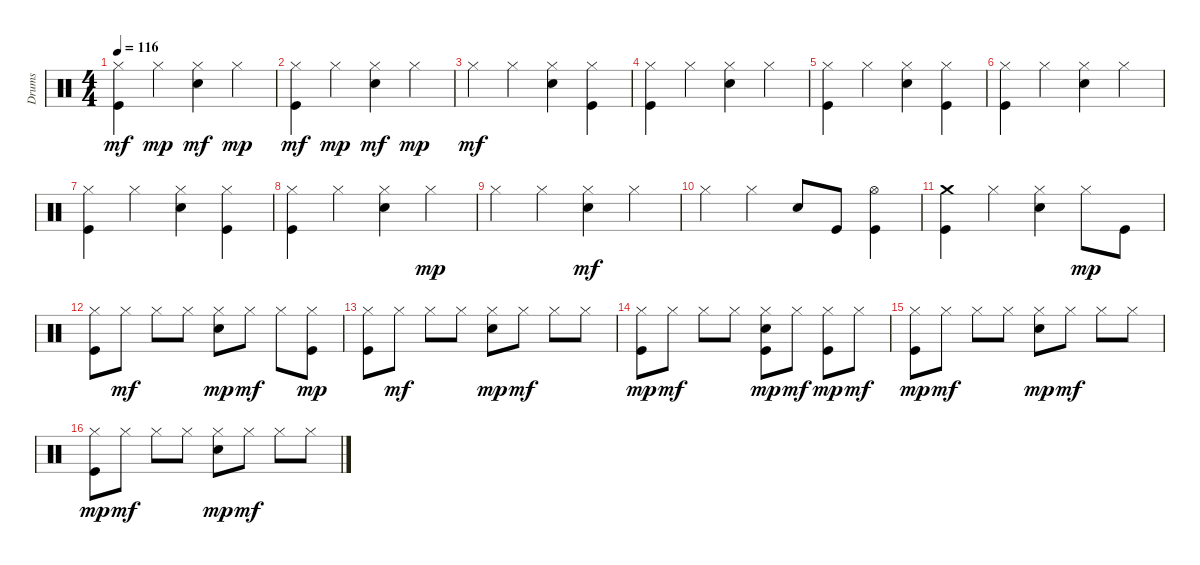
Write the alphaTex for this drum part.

\track ("Drums" "Drums") {instrument percussion}
\staff {score}
\articulation defaults
\ts (4 4)
\tempo 116
\clef neutral
\ks c
("Hi-Hat (closed)" "Kick (hit)").4{dy mf} "Hi-Hat (closed)".4{dy mp} ("Hi-Hat (closed)" "Snare (hit) 2").4{dy mf} "Hi-Hat (closed)".4{dy mp} |
("Hi-Hat (closed)" "Kick (hit)").4{dy mf} "Hi-Hat (closed)".4{dy mp} ("Hi-Hat (closed)" "Snare (hit) 2").4{dy mf} "Hi-Hat (closed)".4{dy mp} |
"Hi-Hat (closed)".4{dy mf} "Hi-Hat (closed)".4 ("Hi-Hat (closed)" "Snare (hit) 2").4 ("Hi-Hat (closed)" "Kick (hit)").4 |
("Hi-Hat (closed)" "Kick (hit)").4 "Hi-Hat (closed)".4 ("Hi-Hat (closed)" "Snare (hit) 2").4 "Hi-Hat (closed)".4 |
("Hi-Hat (closed)" "Kick (hit)").4 "Hi-Hat (closed)".4 ("Hi-Hat (closed)" "Snare (hit) 2").4 ("Hi-Hat (closed)" "Kick (hit)").4 |
("Hi-Hat (closed)" "Kick (hit)").4 "Hi-Hat (closed)".4 ("Hi-Hat (closed)" "Snare (hit) 2").4 "Hi-Hat (closed)".4 |
("Hi-Hat (closed)" "Kick (hit)").4 "Hi-Hat (closed)".4 ("Hi-Hat (closed)" "Snare (hit) 2").4 ("Hi-Hat (closed)" "Kick (hit)").4 |
("Hi-Hat (closed)" "Kick (hit)").4 "Hi-Hat (closed)".4 ("Hi-Hat (closed)" "Snare (hit) 2").4 "Hi-Hat (closed)".4{dy mp} |
"Hi-Hat (closed)".4 "Hi-Hat (closed)".4 ("Hi-Hat (closed)" "Snare (hit) 2").4{dy mf} "Hi-Hat (closed)".4 |
"Hi-Hat (closed)".4 "Hi-Hat (closed)".4 "Snare (hit) 2".8 "Kick (hit)".8 ("Hi-Hat (open)" "Kick (hit)").4 |
("Crash medium (hit)" "Kick (hit)").4 "Hi-Hat (closed)".4 ("Hi-Hat (closed)" "Snare (hit) 2").4 "Hi-Hat (closed)".8{dy mp} "Kick (hit)".8 |
("Hi-Hat (closed)" "Kick (hit)").8 "Hi-Hat (closed)".8{dy mf} "Hi-Hat (closed)".8 "Hi-Hat (closed)".8 ("Hi-Hat (closed)" "Snare (hit) 2").8{dy mp} "Hi-Hat (closed)".8{dy mf} "Hi-Hat (closed)".8 ("Hi-Hat (closed)" "Kick (hit)").8{dy mp} |
("Hi-Hat (closed)" "Kick (hit)").8 "Hi-Hat (closed)".8{dy mf} "Hi-Hat (closed)".8 "Hi-Hat (closed)".8 ("Hi-Hat (closed)" "Snare (hit) 2").8{dy mp} "Hi-Hat (closed)".8{dy mf} "Hi-Hat (closed)".8 "Hi-Hat (closed)".8 |
("Hi-Hat (closed)" "Kick (hit)").8{dy mp} "Hi-Hat (closed)".8{dy mf} "Hi-Hat (closed)".8 "Hi-Hat (closed)".8 ("Hi-Hat (closed)" "Snare (hit) 2" "Kick (hit)").8{dy mp} "Hi-Hat (closed)".8{dy mf} ("Hi-Hat (closed)" "Kick (hit)").8{dy mp} "Hi-Hat (closed)".8{dy mf} |
("Hi-Hat (closed)" "Kick (hit)").8{dy mp} "Hi-Hat (closed)".8{dy mf} "Hi-Hat (closed)".8 "Hi-Hat (closed)".8 ("Hi-Hat (closed)" "Snare (hit) 2").8{dy mp} "Hi-Hat (closed)".8{dy mf} "Hi-Hat (closed)".8 "Hi-Hat (closed)".8 |
("Hi-Hat (closed)" "Kick (hit)").8{dy mp} "Hi-Hat (closed)".8{dy mf} "Hi-Hat (closed)".8 "Hi-Hat (closed)".8 ("Hi-Hat (closed)" "Snare (hit) 2").8{dy mp} "Hi-Hat (closed)".8{dy mf} "Hi-Hat (closed)".8 "Hi-Hat (closed)".8
